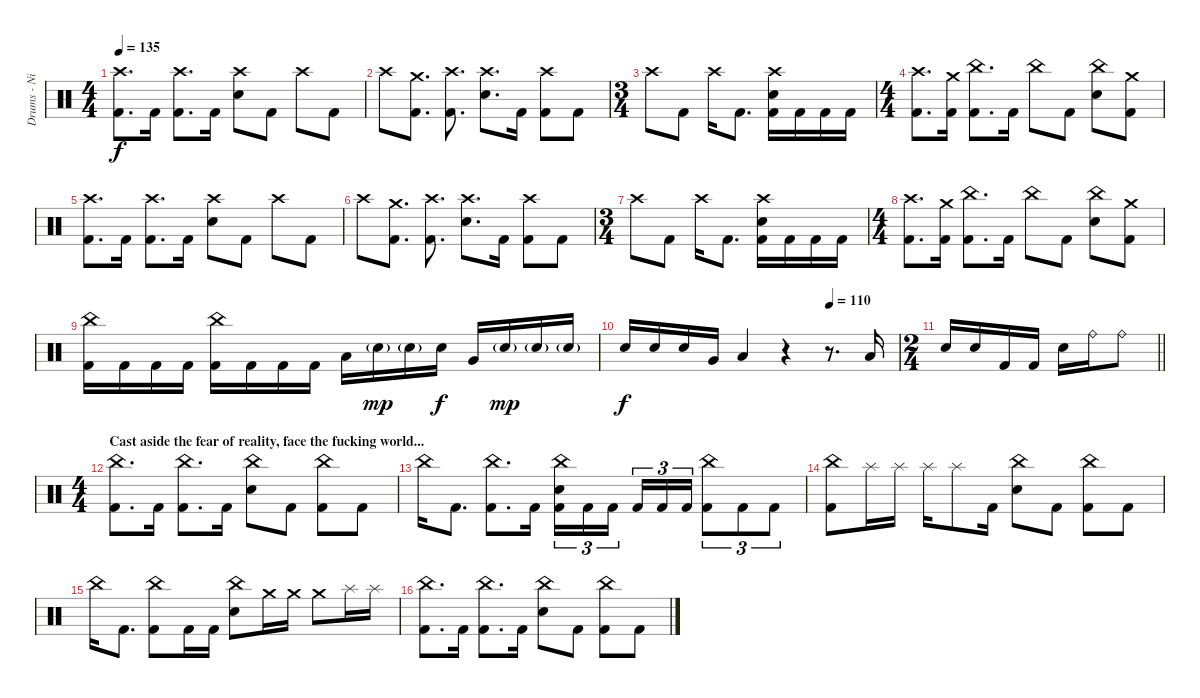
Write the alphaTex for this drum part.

\track ("Drums - Nic" "Drums - Ni") {instrument percussion}
\staff {score}
\articulation defaults
\ts (4 4)
\tempo 135
\clef neutral
\ks c
("Crash high (hit)" "Kick (hit) 2").8{d dy f} "Kick (hit) 2".16 ("Crash high (hit)" "Kick (hit) 2").8{d} "Kick (hit) 2".16 ("Crash high (hit)" "Electric Snare (hit)").8 "Kick (hit) 2".8 "Crash high (hit)".8 "Kick (hit) 2".8 |
"Crash high (hit)".8 ("Crash medium (hit)" "Kick (hit) 2").8{d} ("Crash high (hit)" "Kick (hit) 2").8{d} ("Crash high (hit)" "Electric Snare (hit)").8{d} "Kick (hit) 2".16 ("Crash high (hit)" "Kick (hit) 2").8 "Kick (hit) 2".8 |
\ts (3 4)
"Crash high (hit)".8 "Kick (hit) 2".8 "Crash high (hit)".16 "Kick (hit) 2".8{d} ("Crash high (hit)" "Electric Snare (hit)" "Kick (hit) 2").16 "Kick (hit) 2".16 "Kick (hit) 2".16 "Kick (hit) 2".16 |
\ts (4 4)
("Crash high (hit)" "Kick (hit) 2").8{d} ("Crash medium (hit)" "Kick (hit) 2").16 ("China (hit)" "Kick (hit) 2").8{d} "Kick (hit) 2".16 "China (hit)".8 "Kick (hit) 2".8 ("China (hit)" "Electric Snare (hit)").8 ("Crash medium (hit)" "Kick (hit) 2").8 |
("Crash high (hit)" "Kick (hit) 2").8{d} "Kick (hit) 2".16 ("Crash high (hit)" "Kick (hit) 2").8{d} "Kick (hit) 2".16 ("Crash high (hit)" "Electric Snare (hit)").8 "Kick (hit) 2".8 "Crash high (hit)".8 "Kick (hit) 2".8 |
"Crash high (hit)".8 ("Crash medium (hit)" "Kick (hit) 2").8{d} ("Crash high (hit)" "Kick (hit) 2").8{d} ("Crash high (hit)" "Electric Snare (hit)").8{d} "Kick (hit) 2".16 ("Crash high (hit)" "Kick (hit) 2").8 "Kick (hit) 2".8 |
\ts (3 4)
"Crash high (hit)".8 "Kick (hit) 2".8 "Crash high (hit)".16 "Kick (hit) 2".8{d} ("Crash high (hit)" "Electric Snare (hit)" "Kick (hit) 2").16 "Kick (hit) 2".16 "Kick (hit) 2".16 "Kick (hit) 2".16 |
\ts (4 4)
("Crash high (hit)" "Kick (hit) 2").8{d} ("Crash medium (hit)" "Kick (hit) 2").16 ("China (hit)" "Kick (hit) 2").8{d} "Kick (hit) 2".16 "China (hit)".8 "Kick (hit) 2".8 ("China (hit)" "Electric Snare (hit)").8 ("Crash medium (hit)" "Kick (hit) 2").8 |
("China (hit)" "Kick (hit) 2").16 "Kick (hit) 2".16 "Kick (hit) 2".16 "Kick (hit) 2".16 ("China (hit)" "Kick (hit) 2").16 "Kick (hit) 2".16 "Kick (hit) 2".16 "Kick (hit) 2".16 "Low Tom (hit)".16 "Electric Snare (hit)"{g}.16{dy mp} "Electric Snare (hit)"{g}.16 "Electric Snare (hit)".16{dy f} "Very Low Tom (hit)".16 "Electric Snare (hit)"{g}.16{dy mp} "Electric Snare (hit)"{g}.16 "Electric Snare (hit)"{g}.16 |
\tempo (110 0.75)
"Electric Snare (hit)".16{dy f} "Electric Snare (hit)".16 "Electric Snare (hit)".16 "Very Low Tom (hit)".16 "Low Floor Tom (hit)".4 r.4 r.8{d} "Low Floor Tom (hit)".16 |
\ts (2 4)
\barLineRight lightlight "Electric Snare (hit)".16 "Electric Snare (hit)".16 "Kick (hit) 2".16 "Kick (hit) 2".16 "Electric Snare (hit)".16 "Ride (bell)".16 "Ride (bell)".8
|
\ts (4 4)
\section ("" "Cast aside the fear of reality, face the fucking world...")
("China (hit)" "Kick (hit) 2").8{d} "Kick (hit) 2".16 ("China (hit)" "Kick (hit) 2").8{d} "Kick (hit) 2".16 ("China (hit)" "Electric Snare (hit)").8 "Kick (hit) 2".8 ("China (hit)" "Kick (hit) 2").8 "Kick (hit) 2".8 |
"China (hit)".16 "Kick (hit) 2".8{d} ("China (hit)" "Kick (hit) 2").8{d} "Kick (hit) 2".16 ("China (hit)" "Electric Snare (hit)" "Kick (hit) 2").16{tu (3 2)} "Kick (hit) 2".16{tu (3 2)} "Kick (hit) 2".16{tu (3 2) beam splitsecondary} "Kick (hit) 2".16{tu (3 2)} "Kick (hit) 2".16{tu (3 2)} "Kick (hit) 2".16{tu (3 2)} ("China (hit)" "Kick (hit) 2").8{tu (3 2)} "Kick (hit) 2".8{tu (3 2)} "Kick (hit) 2".8{tu (3 2)} |
("China (hit)" "Kick (hit) 2").8 "Splash (hit)".16 "Splash (hit)".16 "Splash (hit)".16 "Splash (hit)".8 "Kick (hit) 2".16 ("China (hit)" "Electric Snare (hit)").8 "Kick (hit) 2".8 ("China (hit)" "Kick (hit) 2").8 "Kick (hit) 2".8 |
"China (hit)".16 "Kick (hit) 2".8{d} ("China (hit)" "Kick (hit) 2").8 "Kick (hit) 2".16 "Kick (hit) 2".16 ("China (hit)" "Electric Snare (hit)").8 "Crash medium (hit)".16 "Crash medium (hit)".16 "Crash medium (hit)".8 "Splash (hit)".16 "Splash (hit)".16 |
("China (hit)" "Kick (hit) 2").8{d} "Kick (hit) 2".16 ("China (hit)" "Kick (hit) 2").8{d} "Kick (hit) 2".16 ("China (hit)" "Electric Snare (hit)").8 "Kick (hit) 2".8 ("China (hit)" "Kick (hit) 2").8 "Kick (hit) 2".8
